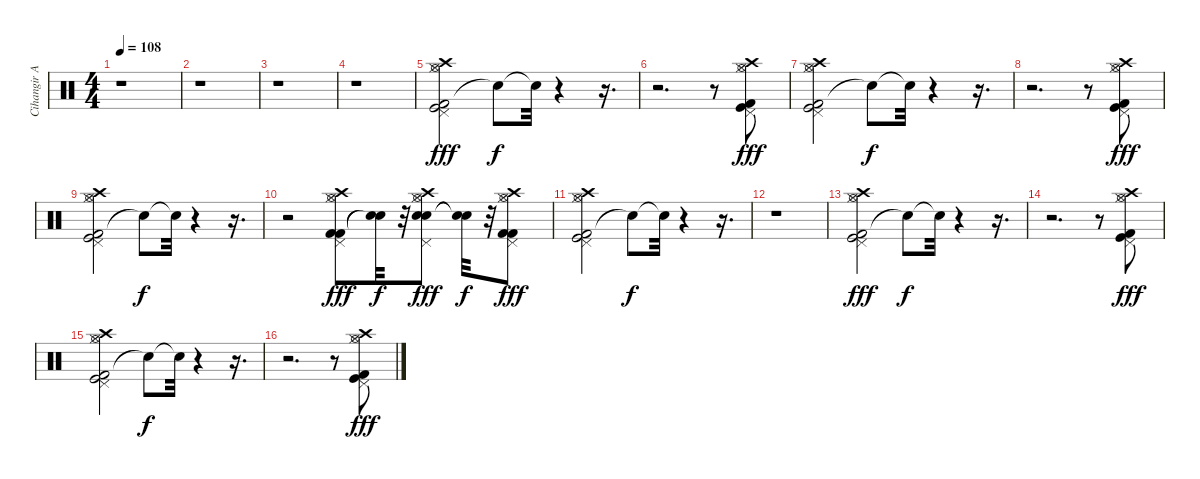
\track ("Cihangir Akkuzu (Drums)" "Cihangir A") {instrument percussion}
\staff {score}
\articulation defaults
\ts (4 4)
\tempo 108
\clef neutral
\ks c
r.1{dy fff} |
r.1 |
r.1 |
r.1 |
("Kick (hit) 2" "Kick (hit)" "Crash high (hit)" "Pedal Hi-Hat (hit)" "Hi-Hat (open)" "Hi-Hat (closed)").2 "Snare (hit)"{t}.8{dy f} "Snare (hit)"{t}.32 r.4 r.16{d} |
r.2{d} r.8 ("Kick (hit) 2" "Kick (hit)" "Crash high (hit)" "Pedal Hi-Hat (hit)" "Hi-Hat (open)" "Hi-Hat (closed)").8{dy fff} |
("Kick (hit) 2" "Kick (hit)" "Crash high (hit)" "Pedal Hi-Hat (hit)" "Hi-Hat (open)" "Hi-Hat (closed)").2 "Snare (hit)"{t}.8{dy f} "Snare (hit)"{t}.32 r.4 r.16{d} |
r.2{d} r.8 ("Kick (hit) 2" "Kick (hit)" "Crash high (hit)" "Pedal Hi-Hat (hit)" "Hi-Hat (open)" "Hi-Hat (closed)").8{dy fff} |
("Kick (hit) 2" "Kick (hit)" "Crash high (hit)" "Pedal Hi-Hat (hit)" "Hi-Hat (open)" "Hi-Hat (closed)").2 "Snare (hit)"{t}.8{dy f} "Snare (hit)"{t}.32 r.4 r.16{d} |
r.2 ("Kick (hit) 2" "Kick (hit) 2" "Crash high (hit)" "Pedal Hi-Hat (hit)" "Hi-Hat (open)" "Hi-Hat (closed)").8{dy fff} ("Snare (hit)"{t} "Snare (hit)"{t}).32{dy f} r.32 ("Snare (hit) 2" "Snare (hit) 2" "Crash high (hit)" "Pedal Hi-Hat (hit)" "Hi-Hat (open)" "Hi-Hat (closed)").8{dy fff} ("Snare (hit)"{t} "Snare (hit)"{t}).32{dy f} r.32 ("Kick (hit) 2" "Crash high (hit)" "Pedal Hi-Hat (hit)" "Hi-Hat (open)" "Hi-Hat (closed)" "Kick (hit) 2").8{dy fff} |
("Kick (hit) 2" "Kick (hit)" "Crash high (hit)" "Pedal Hi-Hat (hit)" "Hi-Hat (open)" "Hi-Hat (closed)").2 "Snare (hit)"{t}.8{dy f} "Snare (hit)"{t}.32 r.4 r.16{d} |
r.1 |
("Kick (hit) 2" "Kick (hit)" "Crash high (hit)" "Pedal Hi-Hat (hit)" "Hi-Hat (open)" "Hi-Hat (closed)").2{dy fff} "Snare (hit)"{t}.8{dy f} "Snare (hit)"{t}.32 r.4 r.16{d} |
r.2{d} r.8 ("Kick (hit) 2" "Kick (hit)" "Crash high (hit)" "Pedal Hi-Hat (hit)" "Hi-Hat (open)" "Hi-Hat (closed)").8{dy fff} |
("Kick (hit) 2" "Kick (hit)" "Crash high (hit)" "Pedal Hi-Hat (hit)" "Hi-Hat (open)" "Hi-Hat (closed)").2 "Snare (hit)"{t}.8{dy f} "Snare (hit)"{t}.32 r.4 r.16{d} |
r.2{d} r.8 ("Kick (hit) 2" "Kick (hit)" "Crash high (hit)" "Pedal Hi-Hat (hit)" "Hi-Hat (open)" "Hi-Hat (closed)").8{dy fff}
